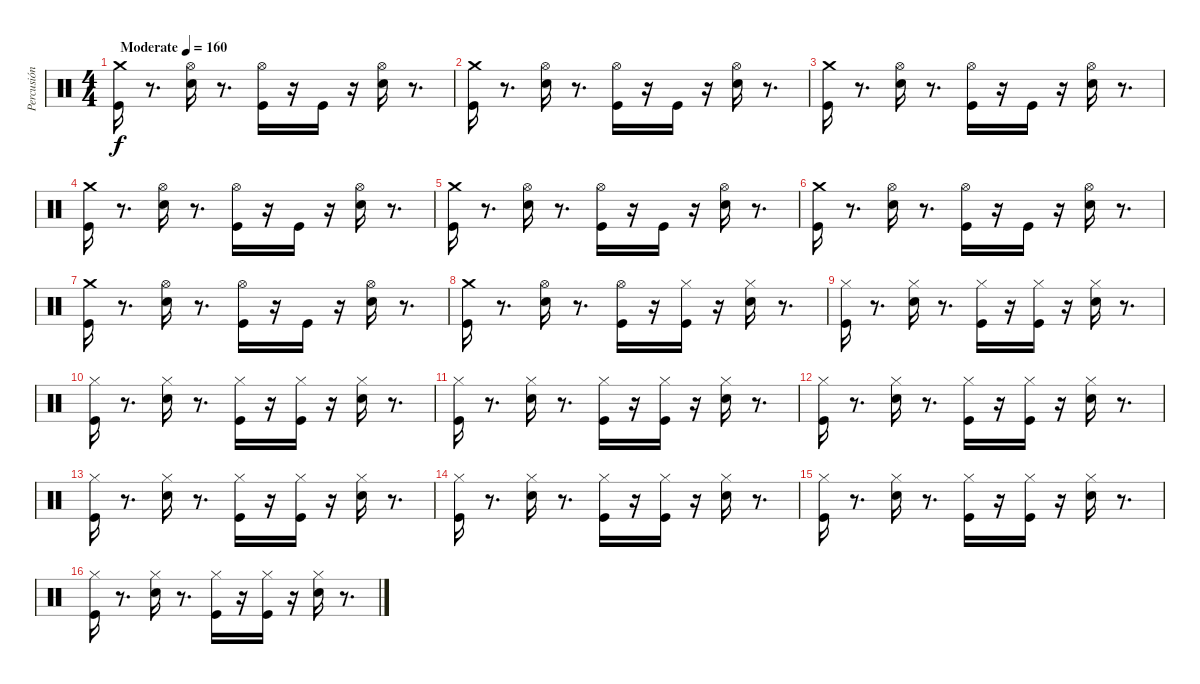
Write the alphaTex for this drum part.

\track ("Percusión" "Percusión") {instrument percussion}
\staff {score}
\articulation defaults
\ts (4 4)
\tempo (160 "Moderate")
\clef neutral
\ks c
("Kick (hit)" "Crash medium (hit)").16{dy f} r.8{d} ("Snare (hit) 2" "Hi-Hat (open)").16 r.8{d} ("Kick (hit)" "Hi-Hat (open)").16 r.16 "Kick (hit)".16 r.16 ("Hi-Hat (open)" "Snare (hit) 2").16 r.8{d} |
("Kick (hit)" "Crash medium (hit)").16 r.8{d} ("Snare (hit) 2" "Hi-Hat (open)").16 r.8{d} ("Kick (hit)" "Hi-Hat (open)").16 r.16 "Kick (hit)".16 r.16 ("Hi-Hat (open)" "Snare (hit) 2").16 r.8{d} |
("Kick (hit)" "Crash medium (hit)").16 r.8{d} ("Snare (hit) 2" "Hi-Hat (open)").16 r.8{d} ("Kick (hit)" "Hi-Hat (open)").16 r.16 "Kick (hit)".16 r.16 ("Hi-Hat (open)" "Snare (hit) 2").16 r.8{d} |
("Kick (hit)" "Crash medium (hit)").16 r.8{d} ("Snare (hit) 2" "Hi-Hat (open)").16 r.8{d} ("Kick (hit)" "Hi-Hat (open)").16 r.16 "Kick (hit)".16 r.16 ("Hi-Hat (open)" "Snare (hit) 2").16 r.8{d} |
("Kick (hit)" "Crash medium (hit)").16 r.8{d} ("Snare (hit) 2" "Hi-Hat (open)").16 r.8{d} ("Kick (hit)" "Hi-Hat (open)").16 r.16 "Kick (hit)".16 r.16 ("Hi-Hat (open)" "Snare (hit) 2").16 r.8{d} |
("Kick (hit)" "Crash medium (hit)").16 r.8{d} ("Snare (hit) 2" "Hi-Hat (open)").16 r.8{d} ("Kick (hit)" "Hi-Hat (open)").16 r.16 "Kick (hit)".16 r.16 ("Hi-Hat (open)" "Snare (hit) 2").16 r.8{d} |
("Kick (hit)" "Crash medium (hit)").16 r.8{d} ("Snare (hit) 2" "Hi-Hat (open)").16 r.8{d} ("Kick (hit)" "Hi-Hat (open)").16 r.16 "Kick (hit)".16 r.16 ("Hi-Hat (open)" "Snare (hit) 2").16 r.8{d} |
("Kick (hit)" "Crash medium (hit)").16 r.8{d} ("Snare (hit) 2" "Hi-Hat (open)").16 r.8{d} ("Kick (hit)" "Hi-Hat (open)").16 r.16 ("Kick (hit)" "Hi-Hat (closed)").16 r.16 ("Hi-Hat (closed)" "Snare (hit) 2").16 r.8{d} |
("Kick (hit)" "Hi-Hat (closed)").16 r.8{d} ("Snare (hit) 2" "Hi-Hat (closed)").16 r.8{d} ("Kick (hit)" "Hi-Hat (closed)").16 r.16 ("Kick (hit)" "Hi-Hat (closed)").16 r.16 ("Snare (hit) 2" "Hi-Hat (closed)").16 r.8{d} |
("Kick (hit)" "Hi-Hat (closed)").16 r.8{d} ("Snare (hit) 2" "Hi-Hat (closed)").16 r.8{d} ("Kick (hit)" "Hi-Hat (closed)").16 r.16 ("Kick (hit)" "Hi-Hat (closed)").16 r.16 ("Snare (hit) 2" "Hi-Hat (closed)").16 r.8{d} |
("Kick (hit)" "Hi-Hat (closed)").16 r.8{d} ("Snare (hit) 2" "Hi-Hat (closed)").16 r.8{d} ("Kick (hit)" "Hi-Hat (closed)").16 r.16 ("Kick (hit)" "Hi-Hat (closed)").16 r.16 ("Snare (hit) 2" "Hi-Hat (closed)").16 r.8{d} |
("Kick (hit)" "Hi-Hat (closed)").16 r.8{d} ("Snare (hit) 2" "Hi-Hat (closed)").16 r.8{d} ("Kick (hit)" "Hi-Hat (closed)").16 r.16 ("Kick (hit)" "Hi-Hat (closed)").16 r.16 ("Snare (hit) 2" "Hi-Hat (closed)").16 r.8{d} |
("Kick (hit)" "Hi-Hat (closed)").16 r.8{d} ("Snare (hit) 2" "Hi-Hat (closed)").16 r.8{d} ("Kick (hit)" "Hi-Hat (closed)").16 r.16 ("Kick (hit)" "Hi-Hat (closed)").16 r.16 ("Snare (hit) 2" "Hi-Hat (closed)").16 r.8{d} |
("Kick (hit)" "Hi-Hat (closed)").16 r.8{d} ("Snare (hit) 2" "Hi-Hat (closed)").16 r.8{d} ("Kick (hit)" "Hi-Hat (closed)").16 r.16 ("Kick (hit)" "Hi-Hat (closed)").16 r.16 ("Snare (hit) 2" "Hi-Hat (closed)").16 r.8{d} |
("Kick (hit)" "Hi-Hat (closed)").16 r.8{d} ("Snare (hit) 2" "Hi-Hat (closed)").16 r.8{d} ("Kick (hit)" "Hi-Hat (closed)").16 r.16 ("Kick (hit)" "Hi-Hat (closed)").16 r.16 ("Snare (hit) 2" "Hi-Hat (closed)").16 r.8{d} |
("Kick (hit)" "Hi-Hat (closed)").16 r.8{d} ("Snare (hit) 2" "Hi-Hat (closed)").16 r.8{d} ("Kick (hit)" "Hi-Hat (closed)").16 r.16 ("Kick (hit)" "Hi-Hat (closed)").16 r.16 ("Snare (hit) 2" "Hi-Hat (closed)").16 r.8{d}
